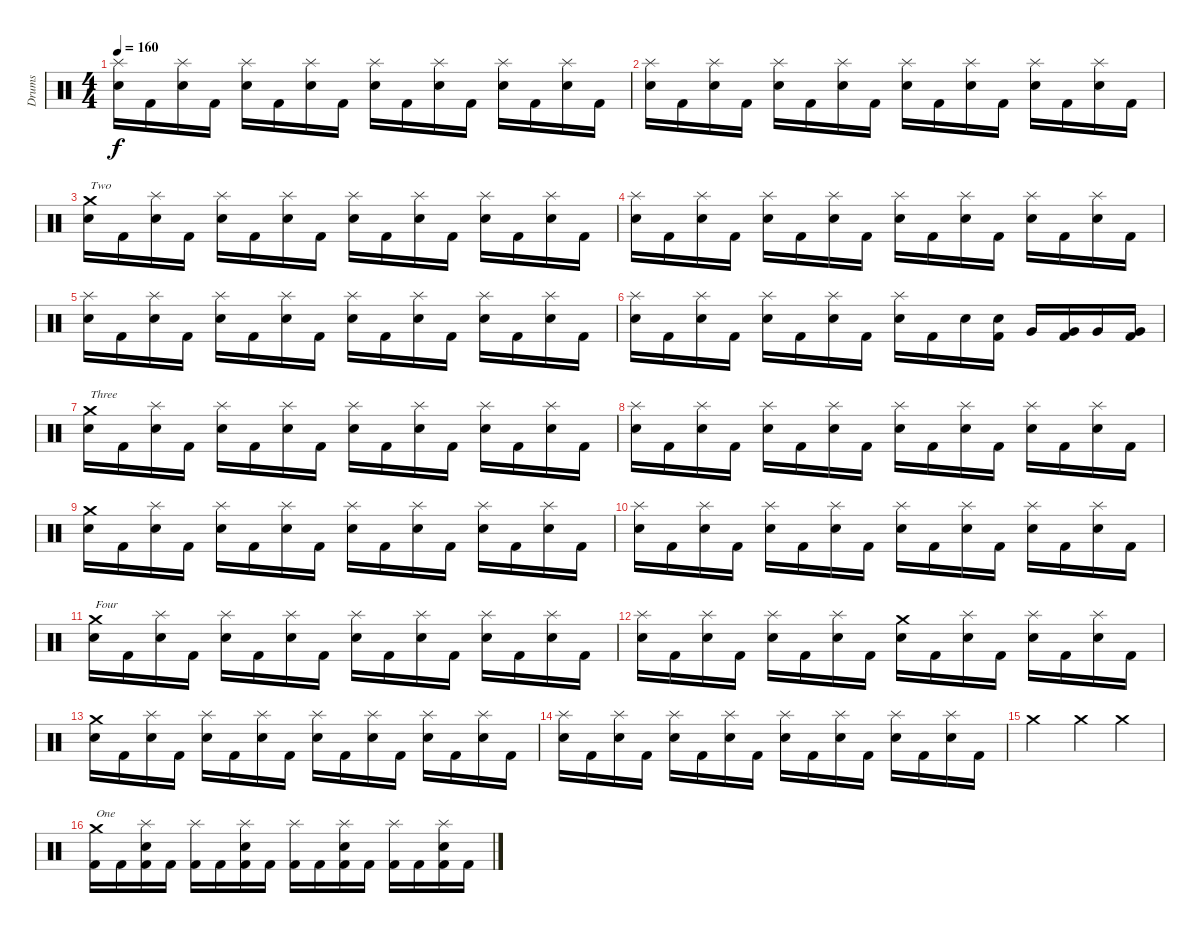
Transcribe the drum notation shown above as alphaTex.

\track ("Drums" "Drums") {instrument percussion}
\staff {score}
\articulation defaults
\ts (4 4)
\tempo 160
\clef neutral
\ks c
("Splash (hit)" "Snare (hit) 2").16{dy f} "Kick (hit) 2".16 ("Splash (hit)" "Snare (hit) 2").16 "Kick (hit) 2".16 ("Splash (hit)" "Snare (hit) 2").16 "Kick (hit) 2".16 ("Splash (hit)" "Snare (hit) 2").16 "Kick (hit) 2".16 ("Splash (hit)" "Snare (hit) 2").16 "Kick (hit) 2".16 ("Splash (hit)" "Snare (hit) 2").16 "Kick (hit) 2".16 ("Splash (hit)" "Snare (hit) 2").16 "Kick (hit) 2".16 ("Splash (hit)" "Snare (hit) 2").16 "Kick (hit) 2".16 |
("Splash (hit)" "Snare (hit) 2").16 "Kick (hit) 2".16 ("Splash (hit)" "Snare (hit) 2").16 "Kick (hit) 2".16 ("Splash (hit)" "Snare (hit) 2").16 "Kick (hit) 2".16 ("Splash (hit)" "Snare (hit) 2").16 "Kick (hit) 2".16 ("Splash (hit)" "Snare (hit) 2").16 "Kick (hit) 2".16 ("Splash (hit)" "Snare (hit) 2").16 "Kick (hit) 2".16 ("Splash (hit)" "Snare (hit) 2").16 "Kick (hit) 2".16 ("Splash (hit)" "Snare (hit) 2").16 "Kick (hit) 2".16 |
("Crash medium (hit)" "Snare (hit) 2").16{txt "Two"} "Kick (hit) 2".16 ("Splash (hit)" "Snare (hit) 2").16 "Kick (hit) 2".16 ("Splash (hit)" "Snare (hit) 2").16 "Kick (hit) 2".16 ("Splash (hit)" "Snare (hit) 2").16 "Kick (hit) 2".16 ("Splash (hit)" "Snare (hit) 2").16 "Kick (hit) 2".16 ("Splash (hit)" "Snare (hit) 2").16 "Kick (hit) 2".16 ("Splash (hit)" "Snare (hit) 2").16 "Kick (hit) 2".16 ("Splash (hit)" "Snare (hit) 2").16 "Kick (hit) 2".16 |
("Splash (hit)" "Snare (hit) 2").16 "Kick (hit) 2".16 ("Splash (hit)" "Snare (hit) 2").16 "Kick (hit) 2".16 ("Splash (hit)" "Snare (hit) 2").16 "Kick (hit) 2".16 ("Splash (hit)" "Snare (hit) 2").16 "Kick (hit) 2".16 ("Splash (hit)" "Snare (hit) 2").16 "Kick (hit) 2".16 ("Splash (hit)" "Snare (hit) 2").16 "Kick (hit) 2".16 ("Splash (hit)" "Snare (hit) 2").16 "Kick (hit) 2".16 ("Splash (hit)" "Snare (hit) 2").16 "Kick (hit) 2".16 |
("Splash (hit)" "Snare (hit) 2").16 "Kick (hit) 2".16 ("Splash (hit)" "Snare (hit) 2").16 "Kick (hit) 2".16 ("Splash (hit)" "Snare (hit) 2").16 "Kick (hit) 2".16 ("Splash (hit)" "Snare (hit) 2").16 "Kick (hit) 2".16 ("Splash (hit)" "Snare (hit) 2").16 "Kick (hit) 2".16 ("Splash (hit)" "Snare (hit) 2").16 "Kick (hit) 2".16 ("Splash (hit)" "Snare (hit) 2").16 "Kick (hit) 2".16 ("Splash (hit)" "Snare (hit) 2").16 "Kick (hit) 2".16 |
("Splash (hit)" "Snare (hit) 2").16 "Kick (hit) 2".16 ("Splash (hit)" "Snare (hit) 2").16 "Kick (hit) 2".16 ("Splash (hit)" "Snare (hit) 2").16 "Kick (hit) 2".16 ("Splash (hit)" "Snare (hit) 2").16 "Kick (hit) 2".16 ("Splash (hit)" "Snare (hit) 2").16 "Kick (hit) 2".16 "Snare (hit) 2".16 ("Snare (hit) 2" "Kick (hit) 2").16 "Very Low Tom (hit)".16 ("Very Low Tom (hit)" "Kick (hit) 2").16 "Very Low Tom (hit)".16 ("Very Low Tom (hit)" "Kick (hit) 2").16 |
("Crash medium (hit)" "Snare (hit) 2").16{txt "Three"} "Kick (hit) 2".16 ("Splash (hit)" "Snare (hit) 2").16 "Kick (hit) 2".16 ("Splash (hit)" "Snare (hit) 2").16 "Kick (hit) 2".16 ("Splash (hit)" "Snare (hit) 2").16 "Kick (hit) 2".16 ("Splash (hit)" "Snare (hit) 2").16 "Kick (hit) 2".16 ("Splash (hit)" "Snare (hit) 2").16 "Kick (hit) 2".16 ("Splash (hit)" "Snare (hit) 2").16 "Kick (hit) 2".16 ("Splash (hit)" "Snare (hit) 2").16 "Kick (hit) 2".16 |
("Splash (hit)" "Snare (hit) 2").16 "Kick (hit) 2".16 ("Splash (hit)" "Snare (hit) 2").16 "Kick (hit) 2".16 ("Splash (hit)" "Snare (hit) 2").16 "Kick (hit) 2".16 ("Splash (hit)" "Snare (hit) 2").16 "Kick (hit) 2".16 ("Splash (hit)" "Snare (hit) 2").16 "Kick (hit) 2".16 ("Splash (hit)" "Snare (hit) 2").16 "Kick (hit) 2".16 ("Splash (hit)" "Snare (hit) 2").16 "Kick (hit) 2".16 ("Splash (hit)" "Snare (hit) 2").16 "Kick (hit) 2".16 |
("Crash medium (hit)" "Snare (hit) 2").16 "Kick (hit) 2".16 ("Splash (hit)" "Snare (hit) 2").16 "Kick (hit) 2".16 ("Splash (hit)" "Snare (hit) 2").16 "Kick (hit) 2".16 ("Splash (hit)" "Snare (hit) 2").16 "Kick (hit) 2".16 ("Splash (hit)" "Snare (hit) 2").16 "Kick (hit) 2".16 ("Splash (hit)" "Snare (hit) 2").16 "Kick (hit) 2".16 ("Splash (hit)" "Snare (hit) 2").16 "Kick (hit) 2".16 ("Splash (hit)" "Snare (hit) 2").16 "Kick (hit) 2".16 |
("Splash (hit)" "Snare (hit) 2").16 "Kick (hit) 2".16 ("Splash (hit)" "Snare (hit) 2").16 "Kick (hit) 2".16 ("Splash (hit)" "Snare (hit) 2").16 "Kick (hit) 2".16 ("Splash (hit)" "Snare (hit) 2").16 "Kick (hit) 2".16 ("Splash (hit)" "Snare (hit) 2").16 "Kick (hit) 2".16 ("Splash (hit)" "Snare (hit) 2").16 "Kick (hit) 2".16 ("Splash (hit)" "Snare (hit) 2").16 "Kick (hit) 2".16 ("Splash (hit)" "Snare (hit) 2").16 "Kick (hit) 2".16 |
("Crash medium (hit)" "Snare (hit) 2").16{txt "Four"} "Kick (hit) 2".16 ("Splash (hit)" "Snare (hit) 2").16 "Kick (hit) 2".16 ("Splash (hit)" "Snare (hit) 2").16 "Kick (hit) 2".16 ("Splash (hit)" "Snare (hit) 2").16 "Kick (hit) 2".16 ("Splash (hit)" "Snare (hit) 2").16 "Kick (hit) 2".16 ("Splash (hit)" "Snare (hit) 2").16 "Kick (hit) 2".16 ("Splash (hit)" "Snare (hit) 2").16 "Kick (hit) 2".16 ("Splash (hit)" "Snare (hit) 2").16 "Kick (hit) 2".16 |
("Splash (hit)" "Snare (hit) 2").16 "Kick (hit) 2".16 ("Splash (hit)" "Snare (hit) 2").16 "Kick (hit) 2".16 ("Splash (hit)" "Snare (hit) 2").16 "Kick (hit) 2".16 ("Splash (hit)" "Snare (hit) 2").16 "Kick (hit) 2".16 ("Crash medium (hit)" "Snare (hit) 2").16 "Kick (hit) 2".16 ("Splash (hit)" "Snare (hit) 2").16 "Kick (hit) 2".16 ("Splash (hit)" "Snare (hit) 2").16 "Kick (hit) 2".16 ("Splash (hit)" "Snare (hit) 2").16 "Kick (hit) 2".16 |
("Crash medium (hit)" "Snare (hit) 2").16 "Kick (hit) 2".16 ("Splash (hit)" "Snare (hit) 2").16 "Kick (hit) 2".16 ("Splash (hit)" "Snare (hit) 2").16 "Kick (hit) 2".16 ("Splash (hit)" "Snare (hit) 2").16 "Kick (hit) 2".16 ("Splash (hit)" "Snare (hit) 2").16 "Kick (hit) 2".16 ("Splash (hit)" "Snare (hit) 2").16 "Kick (hit) 2".16 ("Splash (hit)" "Snare (hit) 2").16 "Kick (hit) 2".16 ("Splash (hit)" "Snare (hit) 2").16 "Kick (hit) 2".16 |
("Splash (hit)" "Snare (hit) 2").16 "Kick (hit) 2".16 ("Splash (hit)" "Snare (hit) 2").16 "Kick (hit) 2".16 ("Splash (hit)" "Snare (hit) 2").16 "Kick (hit) 2".16 ("Splash (hit)" "Snare (hit) 2").16 "Kick (hit) 2".16 ("Splash (hit)" "Snare (hit) 2").16 "Kick (hit) 2".16 ("Splash (hit)" "Snare (hit) 2").16 "Kick (hit) 2".16 ("Splash (hit)" "Snare (hit) 2").16 "Kick (hit) 2".16 ("Splash (hit)" "Snare (hit) 2").16 "Kick (hit) 2".16 |
"Crash medium (hit)".2 "Crash medium (hit)".4 "Crash medium (hit)".4 |
("Crash medium (hit)" "Kick (hit) 2").16{txt "One"} "Kick (hit) 2".16 ("Splash (hit)" "Snare (hit) 2" "Kick (hit) 2").16 "Kick (hit) 2".16 ("Splash (hit)" "Kick (hit) 2").16 "Kick (hit) 2".16 ("Splash (hit)" "Snare (hit) 2" "Kick (hit) 2").16 "Kick (hit) 2".16 ("Splash (hit)" "Kick (hit) 2").16 "Kick (hit) 2".16 ("Splash (hit)" "Snare (hit) 2" "Kick (hit) 2").16 "Kick (hit) 2".16 ("Splash (hit)" "Kick (hit) 2").16 "Kick (hit) 2".16 ("Splash (hit)" "Snare (hit) 2" "Kick (hit) 2").16 "Kick (hit) 2".16
